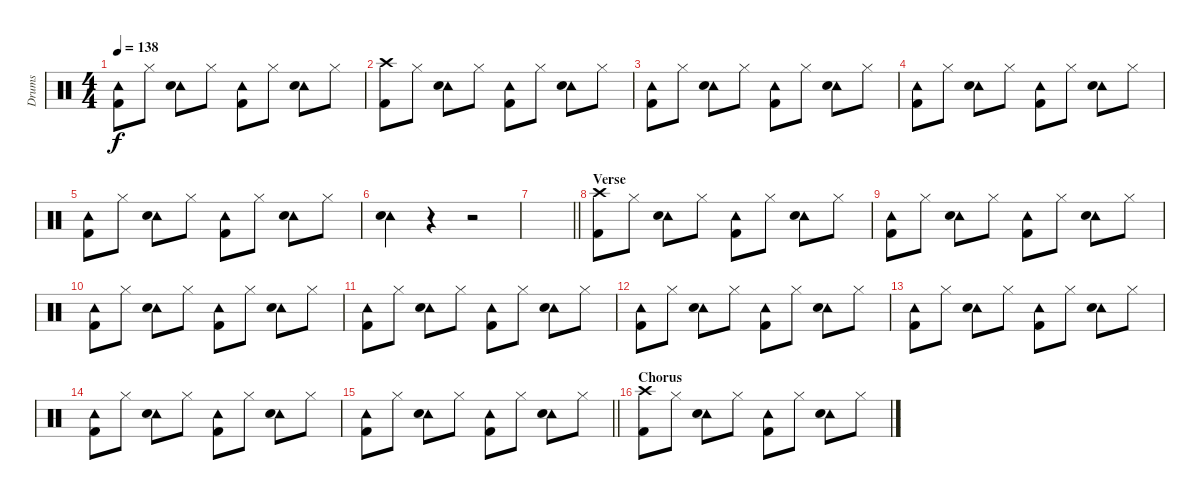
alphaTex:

\track ("Drums" "Drums") {instrument percussion}
\staff {score}
\articulation defaults
\ts (4 4)
\tempo 138
\clef neutral
\ks c
("Tambourine (hit)" "Kick (hit) 2").8{dy f} "Hi-Hat (closed)".8 ("Tambourine (hit)" "Snare (hit) 2").8 "Hi-Hat (closed)".8 ("Tambourine (hit)" "Kick (hit) 2").8 "Hi-Hat (closed)".8 ("Tambourine (hit)" "Snare (hit) 2").8 "Hi-Hat (closed)".8 |
("Crash high (hit)" "Kick (hit) 2").8 "Hi-Hat (closed)".8 ("Tambourine (hit)" "Snare (hit) 2").8 "Hi-Hat (closed)".8 ("Tambourine (hit)" "Kick (hit) 2").8 "Hi-Hat (closed)".8 ("Tambourine (hit)" "Snare (hit) 2").8 "Hi-Hat (closed)".8 |
("Tambourine (hit)" "Kick (hit) 2").8 "Hi-Hat (closed)".8 ("Tambourine (hit)" "Snare (hit) 2").8 "Hi-Hat (closed)".8 ("Tambourine (hit)" "Kick (hit) 2").8 "Hi-Hat (closed)".8 ("Tambourine (hit)" "Snare (hit) 2").8 "Hi-Hat (closed)".8 |
("Tambourine (hit)" "Kick (hit) 2").8 "Hi-Hat (closed)".8 ("Tambourine (hit)" "Snare (hit) 2").8 "Hi-Hat (closed)".8 ("Tambourine (hit)" "Kick (hit) 2").8 "Hi-Hat (closed)".8 ("Tambourine (hit)" "Snare (hit) 2").8 "Hi-Hat (closed)".8 |
("Tambourine (hit)" "Kick (hit) 2").8 "Hi-Hat (closed)".8 ("Tambourine (hit)" "Snare (hit) 2").8 "Hi-Hat (closed)".8 ("Tambourine (hit)" "Kick (hit) 2").8 "Hi-Hat (closed)".8 ("Tambourine (hit)" "Snare (hit) 2").8 "Hi-Hat (closed)".8 |
("Tambourine (hit)" "Snare (hit) 2").4 r.4 r.2 |
\barLineRight lightlight
|
\section ("" "Verse")
("Crash high (hit)" "Kick (hit) 2").8 "Hi-Hat (closed)".8 ("Tambourine (hit)" "Snare (hit) 2").8 "Hi-Hat (closed)".8 ("Tambourine (hit)" "Kick (hit) 2").8 "Hi-Hat (closed)".8 ("Tambourine (hit)" "Snare (hit) 2").8 "Hi-Hat (closed)".8 |
("Tambourine (hit)" "Kick (hit) 2").8 "Hi-Hat (closed)".8 ("Tambourine (hit)" "Snare (hit) 2").8 "Hi-Hat (closed)".8 ("Tambourine (hit)" "Kick (hit) 2").8 "Hi-Hat (closed)".8 ("Tambourine (hit)" "Snare (hit) 2").8 "Hi-Hat (closed)".8 |
("Tambourine (hit)" "Kick (hit) 2").8 "Hi-Hat (closed)".8 ("Tambourine (hit)" "Snare (hit) 2").8 "Hi-Hat (closed)".8 ("Tambourine (hit)" "Kick (hit) 2").8 "Hi-Hat (closed)".8 ("Tambourine (hit)" "Snare (hit) 2").8 "Hi-Hat (closed)".8 |
("Tambourine (hit)" "Kick (hit) 2").8 "Hi-Hat (closed)".8 ("Tambourine (hit)" "Snare (hit) 2").8 "Hi-Hat (closed)".8 ("Tambourine (hit)" "Kick (hit) 2").8 "Hi-Hat (closed)".8 ("Tambourine (hit)" "Snare (hit) 2").8 "Hi-Hat (closed)".8 |
("Tambourine (hit)" "Kick (hit) 2").8 "Hi-Hat (closed)".8 ("Tambourine (hit)" "Snare (hit) 2").8 "Hi-Hat (closed)".8 ("Tambourine (hit)" "Kick (hit) 2").8 "Hi-Hat (closed)".8 ("Tambourine (hit)" "Snare (hit) 2").8 "Hi-Hat (closed)".8 |
("Tambourine (hit)" "Kick (hit) 2").8 "Hi-Hat (closed)".8 ("Tambourine (hit)" "Snare (hit) 2").8 "Hi-Hat (closed)".8 ("Tambourine (hit)" "Kick (hit) 2").8 "Hi-Hat (closed)".8 ("Tambourine (hit)" "Snare (hit) 2").8 "Hi-Hat (closed)".8 |
("Tambourine (hit)" "Kick (hit) 2").8 "Hi-Hat (closed)".8 ("Tambourine (hit)" "Snare (hit) 2").8 "Hi-Hat (closed)".8 ("Tambourine (hit)" "Kick (hit) 2").8 "Hi-Hat (closed)".8 ("Tambourine (hit)" "Snare (hit) 2").8 "Hi-Hat (closed)".8 |
\barLineRight lightlight
("Tambourine (hit)" "Kick (hit) 2").8 "Hi-Hat (closed)".8 ("Tambourine (hit)" "Snare (hit) 2").8 "Hi-Hat (closed)".8 ("Tambourine (hit)" "Kick (hit) 2").8 "Hi-Hat (closed)".8 ("Tambourine (hit)" "Snare (hit) 2").8 "Hi-Hat (closed)".8 |
\section ("" "Chorus")
("Crash high (hit)" "Kick (hit) 2").8 "Hi-Hat (closed)".8 ("Tambourine (hit)" "Snare (hit) 2").8 "Hi-Hat (closed)".8 ("Tambourine (hit)" "Kick (hit) 2").8 "Hi-Hat (closed)".8 ("Tambourine (hit)" "Snare (hit) 2").8 "Hi-Hat (closed)".8
